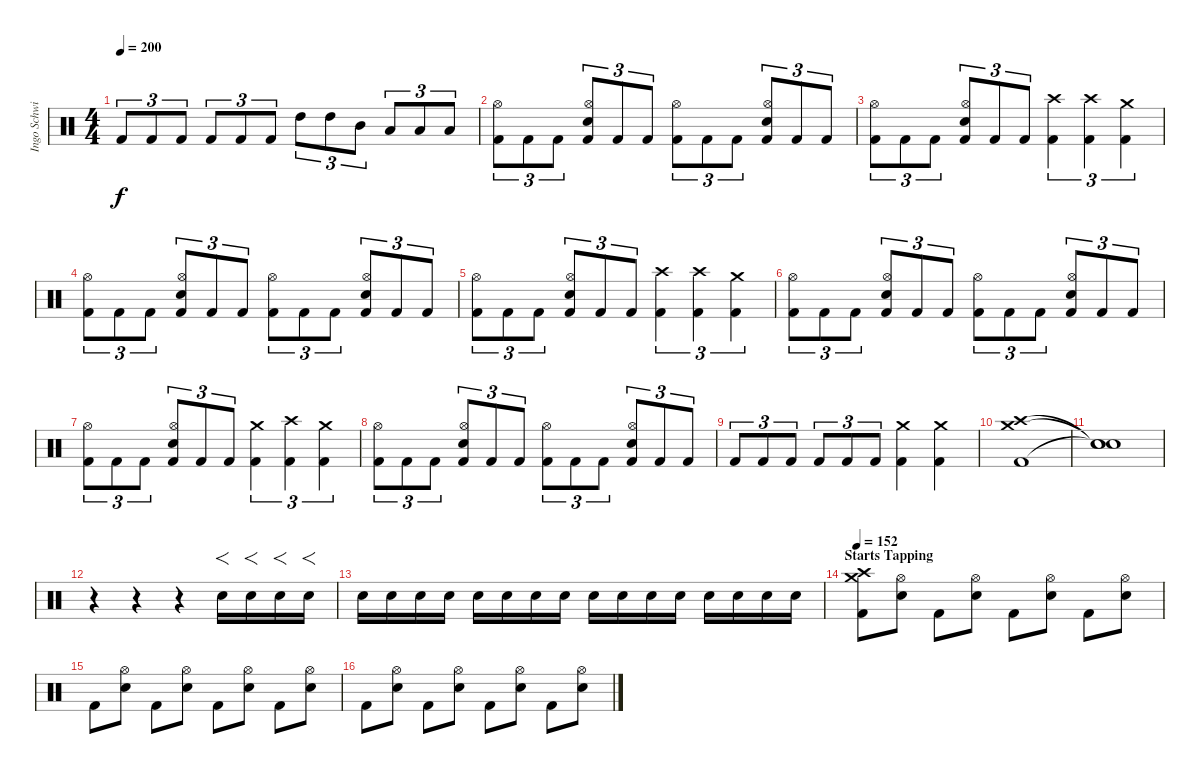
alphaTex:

\track ("Ingo Schwichtenberg" "Ingo Schwi") {instrument percussion}
\staff {score}
\articulation defaults
\ts (4 4)
\tempo 200
\clef neutral
\ks c "Kick (hit) 2".8{tu (3 2) dy f} "Kick (hit) 2".8{tu (3 2)} "Kick (hit) 2".8{tu (3 2)} "Kick (hit) 2".8{tu (3 2)} "Kick (hit) 2".8{tu (3 2)} "Kick (hit) 2".8{tu (3 2)} "High Tom (hit)".8{tu (3 2)} "High Tom (hit)".8{tu (3 2)} "Mid Tom (hit)".8{tu (3 2)} "Low Tom (hit)".8{tu (3 2)} "Low Tom (hit)".8{tu (3 2)} "Low Floor Tom (hit)".8{tu (3 2)}
|
("Hi-Hat (open)" "Kick (hit) 2").8{tu (3 2)} "Kick (hit) 2".8{tu (3 2)} "Kick (hit) 2".8{tu (3 2)} ("Hi-Hat (open)" "Snare (hit) 2" "Kick (hit) 2").8{tu (3 2)} "Kick (hit) 2".8{tu (3 2)} "Kick (hit) 2".8{tu (3 2)} ("Hi-Hat (open)" "Kick (hit) 2").8{tu (3 2)} "Kick (hit) 2".8{tu (3 2)} "Kick (hit) 2".8{tu (3 2)} ("Hi-Hat (open)" "Snare (hit) 2" "Kick (hit) 2").8{tu (3 2)} "Kick (hit) 2".8{tu (3 2)} "Kick (hit) 2".8{tu (3 2)} |
("Hi-Hat (open)" "Kick (hit) 2").8{tu (3 2)} "Kick (hit) 2".8{tu (3 2)} "Kick (hit) 2".8{tu (3 2)} ("Hi-Hat (open)" "Snare (hit) 2" "Kick (hit) 2").8{tu (3 2)} "Kick (hit) 2".8{tu (3 2)} "Kick (hit) 2".8{tu (3 2)} ("Crash high (hit)" "Kick (hit) 2").4{tu (3 2)} ("Crash high (hit)" "Kick (hit) 2").4{tu (3 2)} ("Crash medium (hit)" "Kick (hit) 2").4{tu (3 2)} |
("Hi-Hat (open)" "Kick (hit) 2").8{tu (3 2)} "Kick (hit) 2".8{tu (3 2)} "Kick (hit) 2".8{tu (3 2)} ("Hi-Hat (open)" "Snare (hit) 2" "Kick (hit) 2").8{tu (3 2)} "Kick (hit) 2".8{tu (3 2)} "Kick (hit) 2".8{tu (3 2)} ("Hi-Hat (open)" "Kick (hit) 2").8{tu (3 2)} "Kick (hit) 2".8{tu (3 2)} "Kick (hit) 2".8{tu (3 2)} ("Hi-Hat (open)" "Snare (hit) 2" "Kick (hit) 2").8{tu (3 2)} "Kick (hit) 2".8{tu (3 2)} "Kick (hit) 2".8{tu (3 2)} |
("Hi-Hat (open)" "Kick (hit) 2").8{tu (3 2)} "Kick (hit) 2".8{tu (3 2)} "Kick (hit) 2".8{tu (3 2)} ("Hi-Hat (open)" "Snare (hit) 2" "Kick (hit) 2").8{tu (3 2)} "Kick (hit) 2".8{tu (3 2)} "Kick (hit) 2".8{tu (3 2)} ("Crash high (hit)" "Kick (hit) 2").4{tu (3 2)} ("Crash high (hit)" "Kick (hit) 2").4{tu (3 2)} ("Crash medium (hit)" "Kick (hit) 2").4{tu (3 2)} |
("Hi-Hat (open)" "Kick (hit) 2").8{tu (3 2)} "Kick (hit) 2".8{tu (3 2)} "Kick (hit) 2".8{tu (3 2)} ("Hi-Hat (open)" "Snare (hit) 2" "Kick (hit) 2").8{tu (3 2)} "Kick (hit) 2".8{tu (3 2)} "Kick (hit) 2".8{tu (3 2)} ("Hi-Hat (open)" "Kick (hit) 2").8{tu (3 2)} "Kick (hit) 2".8{tu (3 2)} "Kick (hit) 2".8{tu (3 2)} ("Hi-Hat (open)" "Snare (hit) 2" "Kick (hit) 2").8{tu (3 2)} "Kick (hit) 2".8{tu (3 2)} "Kick (hit) 2".8{tu (3 2)} |
("Hi-Hat (open)" "Kick (hit) 2").8{tu (3 2)} "Kick (hit) 2".8{tu (3 2)} "Kick (hit) 2".8{tu (3 2)} ("Hi-Hat (open)" "Snare (hit) 2" "Kick (hit) 2").8{tu (3 2)} "Kick (hit) 2".8{tu (3 2)} "Kick (hit) 2".8{tu (3 2)} ("Crash medium (hit)" "Kick (hit) 2").4{tu (3 2)} ("Crash high (hit)" "Kick (hit) 2").4{tu (3 2)} ("Crash medium (hit)" "Kick (hit) 2").4{tu (3 2)} |
("Hi-Hat (open)" "Kick (hit) 2").8{tu (3 2)} "Kick (hit) 2".8{tu (3 2)} "Kick (hit) 2".8{tu (3 2)} ("Hi-Hat (open)" "Snare (hit) 2" "Kick (hit) 2").8{tu (3 2)} "Kick (hit) 2".8{tu (3 2)} "Kick (hit) 2".8{tu (3 2)} ("Hi-Hat (open)" "Kick (hit) 2").8{tu (3 2)} "Kick (hit) 2".8{tu (3 2)} "Kick (hit) 2".8{tu (3 2)} ("Hi-Hat (open)" "Snare (hit) 2" "Kick (hit) 2").8{tu (3 2)} "Kick (hit) 2".8{tu (3 2)} "Kick (hit) 2".8{tu (3 2)} |
"Kick (hit) 2".8{tu (3 2)} "Kick (hit) 2".8{tu (3 2)} "Kick (hit) 2".8{tu (3 2)} "Kick (hit) 2".8{tu (3 2)} "Kick (hit) 2".8{tu (3 2)} "Kick (hit) 2".8{tu (3 2)} ("Crash medium (hit)" "Kick (hit) 2").4 ("Crash medium (hit)" "Kick (hit) 2").4 |
("Crash medium (hit)" "Crash high (hit)" "Kick (hit) 2").1 |
("Snare (hit)"{t} "Snare (hit)"{t} "Snare (hit)"{t}).1 |
r.4 r.4 r.4 "Snare (hit) 2".16{f} "Snare (hit) 2".16{f} "Snare (hit) 2".16{f} "Snare (hit) 2".16{f} |
"Snare (hit) 2".16 "Snare (hit) 2".16 "Snare (hit) 2".16 "Snare (hit) 2".16 "Snare (hit) 2".16 "Snare (hit) 2".16 "Snare (hit) 2".16 "Snare (hit) 2".16 "Snare (hit) 2".16 "Snare (hit) 2".16 "Snare (hit) 2".16 "Snare (hit) 2".16 "Snare (hit) 2".16 "Snare (hit) 2".16 "Snare (hit) 2".16 "Snare (hit) 2".16 |
\section ("" "Starts Tapping")
\tempo 153
\tempo 152
("Crash medium (hit)" "Crash high (hit)" "Kick (hit) 2").8 ("Hi-Hat (open)" "Snare (hit) 2").8 "Kick (hit) 2".8 ("Hi-Hat (open)" "Snare (hit) 2").8 "Kick (hit) 2".8 ("Hi-Hat (open)" "Snare (hit) 2").8 "Kick (hit) 2".8 ("Hi-Hat (open)" "Snare (hit) 2").8 |
"Kick (hit) 2".8 ("Hi-Hat (open)" "Snare (hit) 2").8 "Kick (hit) 2".8 ("Hi-Hat (open)" "Snare (hit) 2").8 "Kick (hit) 2".8 ("Hi-Hat (open)" "Snare (hit) 2").8 "Kick (hit) 2".8 ("Hi-Hat (open)" "Snare (hit) 2").8 |
"Kick (hit) 2".8 ("Hi-Hat (open)" "Snare (hit) 2").8 "Kick (hit) 2".8 ("Hi-Hat (open)" "Snare (hit) 2").8 "Kick (hit) 2".8 ("Hi-Hat (open)" "Snare (hit) 2").8 "Kick (hit) 2".8 ("Hi-Hat (open)" "Snare (hit) 2").8
